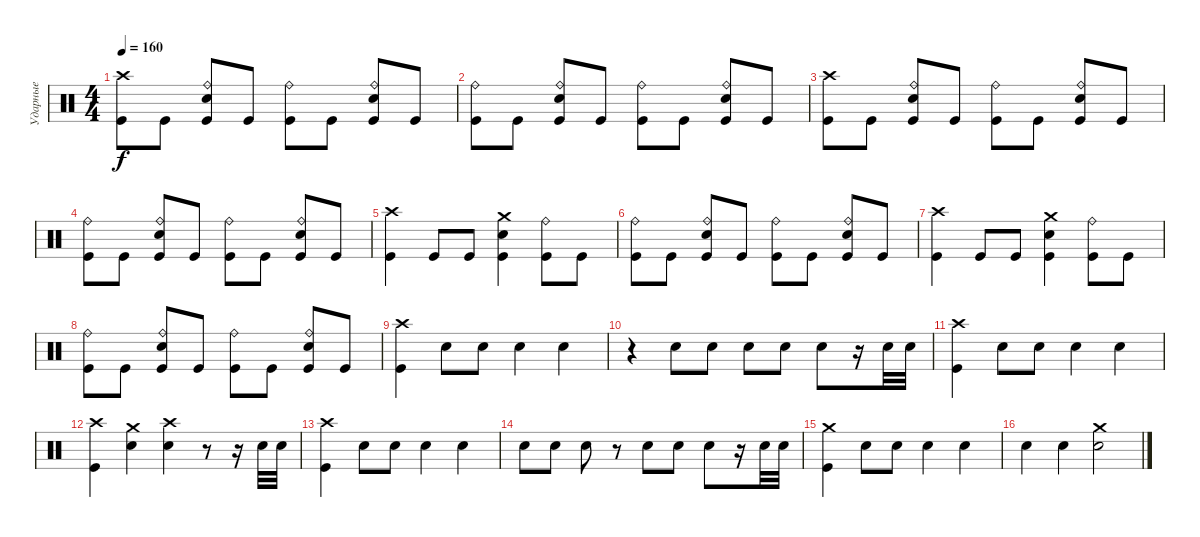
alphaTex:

\track ("Ударные" "Ударные") {instrument percussion}
\staff {score}
\articulation defaults
\ts (4 4)
\tempo 160
\clef neutral
\ks c
("Crash high (hit)" "Kick (hit)").8{dy f} "Kick (hit)".8 ("Ride (bell)" "Electric Snare (hit)" "Kick (hit)").8 "Kick (hit)".8 ("Ride (bell)" "Kick (hit)").8 "Kick (hit)".8 ("Ride (bell)" "Electric Snare (hit)" "Kick (hit)").8 "Kick (hit)".8 |
("Ride (bell)" "Kick (hit)").8 "Kick (hit)".8 ("Ride (bell)" "Electric Snare (hit)" "Kick (hit)").8 "Kick (hit)".8 ("Ride (bell)" "Kick (hit)").8 "Kick (hit)".8 ("Ride (bell)" "Electric Snare (hit)" "Kick (hit)").8 "Kick (hit)".8 |
("Crash high (hit)" "Kick (hit)").8 "Kick (hit)".8 ("Ride (bell)" "Electric Snare (hit)" "Kick (hit)").8 "Kick (hit)".8 ("Ride (bell)" "Kick (hit)").8 "Kick (hit)".8 ("Ride (bell)" "Electric Snare (hit)" "Kick (hit)").8 "Kick (hit)".8 |
("Ride (bell)" "Kick (hit)").8 "Kick (hit)".8 ("Ride (bell)" "Electric Snare (hit)" "Kick (hit)").8 "Kick (hit)".8 ("Ride (bell)" "Kick (hit)").8 "Kick (hit)".8 ("Ride (bell)" "Electric Snare (hit)" "Kick (hit)").8 "Kick (hit)".8 |
("Crash high (hit)" "Kick (hit)").4 "Kick (hit)".8 "Kick (hit)".8 ("Crash medium (hit)" "Electric Snare (hit)" "Kick (hit)").4 ("Ride (bell)" "Kick (hit)").8 "Kick (hit)".8 |
("Ride (bell)" "Kick (hit)").8 "Kick (hit)".8 ("Ride (bell)" "Electric Snare (hit)" "Kick (hit)").8 "Kick (hit)".8 ("Ride (bell)" "Kick (hit)").8 "Kick (hit)".8 ("Ride (bell)" "Electric Snare (hit)" "Kick (hit)").8 "Kick (hit)".8 |
("Crash high (hit)" "Kick (hit)").4 "Kick (hit)".8 "Kick (hit)".8 ("Crash medium (hit)" "Electric Snare (hit)" "Kick (hit)").4 ("Ride (bell)" "Kick (hit)").8 "Kick (hit)".8 |
("Ride (bell)" "Kick (hit)").8 "Kick (hit)".8 ("Ride (bell)" "Electric Snare (hit)" "Kick (hit)").8 "Kick (hit)".8 ("Ride (bell)" "Kick (hit)").8 "Kick (hit)".8 ("Ride (bell)" "Electric Snare (hit)" "Kick (hit)").8 "Kick (hit)".8 |
("Crash high (hit)" "Kick (hit)").4 "Snare (hit) 2".8 "Snare (hit) 2".8 "Snare (hit) 2".4 "Snare (hit) 2".4 |
r.4 "Snare (hit) 2".8 "Snare (hit) 2".8 "Snare (hit) 2".8 "Snare (hit) 2".8 "Snare (hit) 2".8 r.16 "Snare (hit) 2".32 "Snare (hit) 2".32 |
("Crash high (hit)" "Kick (hit)").4 "Snare (hit) 2".8 "Snare (hit) 2".8 "Snare (hit) 2".4 "Snare (hit) 2".4 |
("Crash high (hit)" "Kick (hit)").4 ("Crash medium (hit)" "Snare (hit) 2").4 ("Crash high (hit)" "Snare (hit) 2").4 r.8 r.16 "Snare (hit) 2".32 "Snare (hit) 2".32 |
("Crash high (hit)" "Kick (hit)").4 "Snare (hit) 2".8 "Snare (hit) 2".8 "Snare (hit) 2".4 "Snare (hit) 2".4 |
"Snare (hit) 2".8 "Snare (hit) 2".8 "Snare (hit) 2".8 r.8 "Snare (hit) 2".8 "Snare (hit) 2".8 "Snare (hit) 2".8 r.16 "Snare (hit) 2".32 "Snare (hit) 2".32 |
("Crash medium (hit)" "Kick (hit)").4 "Snare (hit) 2".8 "Snare (hit) 2".8 "Snare (hit) 2".4 "Snare (hit) 2".4 |
"Snare (hit) 2".4 "Snare (hit) 2".4 ("Crash medium (hit)" "Snare (hit) 2").2
